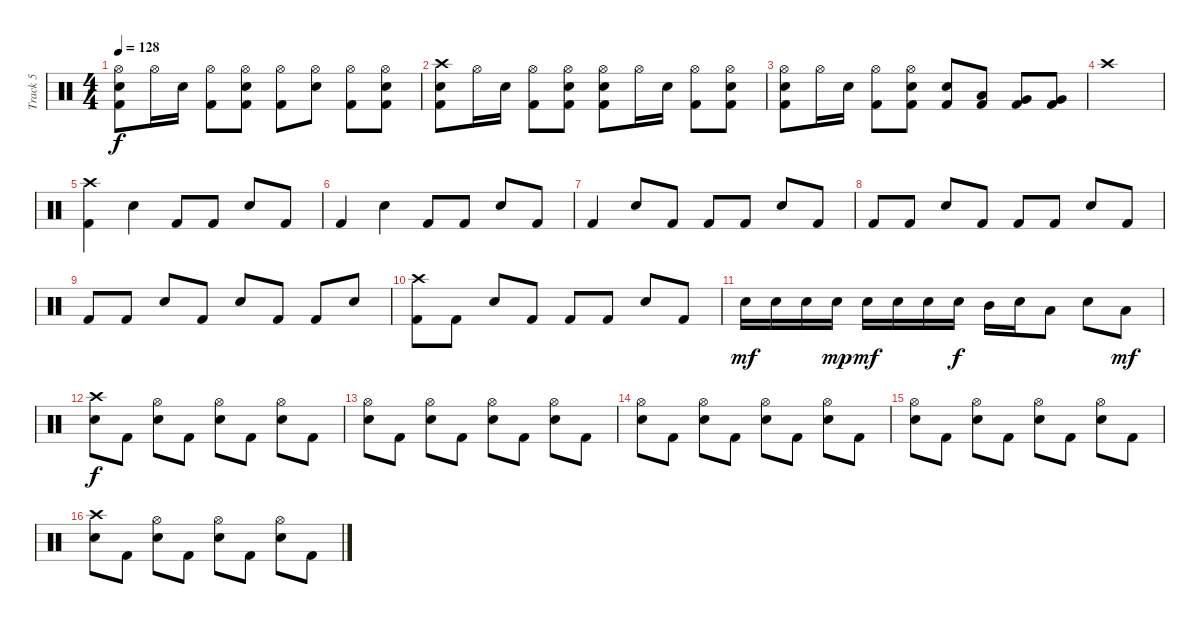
\track ("Track 5" "Track 5") {instrument percussion}
\staff {score}
\articulation defaults
\ts (4 4)
\tempo 128
\clef neutral
\ks c
("Hi-Hat (open)" "Electric Snare (hit)" "Kick (hit) 2").8{dy f} "Hi-Hat (open)".16 "Electric Snare (hit)".16 ("Hi-Hat (open)" "Kick (hit) 2").8 ("Hi-Hat (open)" "Electric Snare (hit)" "Kick (hit) 2").8 ("Hi-Hat (open)" "Kick (hit) 2").8 ("Hi-Hat (open)" "Electric Snare (hit)").8 ("Hi-Hat (open)" "Kick (hit) 2").8 ("Hi-Hat (open)" "Electric Snare (hit)" "Kick (hit) 2").8 |
("Crash high (hit)" "Electric Snare (hit)" "Kick (hit) 2").8 "Hi-Hat (open)".16 "Electric Snare (hit)".16 ("Hi-Hat (open)" "Kick (hit) 2").8 ("Hi-Hat (open)" "Electric Snare (hit)" "Kick (hit) 2").8 ("Hi-Hat (open)" "Electric Snare (hit)" "Kick (hit) 2").8 "Hi-Hat (open)".16 "Electric Snare (hit)".16 ("Hi-Hat (open)" "Kick (hit) 2").8 ("Hi-Hat (open)" "Electric Snare (hit)" "Kick (hit) 2").8 |
("Hi-Hat (open)" "Electric Snare (hit)" "Kick (hit) 2").8 "Hi-Hat (open)".16 "Electric Snare (hit)".16 ("Hi-Hat (open)" "Kick (hit) 2").8 ("Hi-Hat (open)" "Electric Snare (hit)" "Kick (hit) 2").8 ("Electric Snare (hit)" "Kick (hit) 2").8 ("Low Tom (hit)" "Kick (hit) 2").8 ("Very Low Tom (hit)" "Kick (hit) 2").8 ("Very Low Tom (hit)" "Kick (hit) 2").8 |
"Crash high (hit)".1 |
("Crash high (hit)" "Kick (hit) 2").4 "Electric Snare (hit)".4 "Kick (hit) 2".8 "Kick (hit) 2".8 "Electric Snare (hit)".8 "Kick (hit) 2".8 |
"Kick (hit) 2".4 "Electric Snare (hit)".4 "Kick (hit) 2".8 "Kick (hit) 2".8 "Electric Snare (hit)".8 "Kick (hit) 2".8 |
"Kick (hit) 2".4 "Electric Snare (hit)".8 "Kick (hit) 2".8 "Kick (hit) 2".8 "Kick (hit) 2".8 "Electric Snare (hit)".8 "Kick (hit) 2".8 |
"Kick (hit) 2".8 "Kick (hit) 2".8 "Electric Snare (hit)".8 "Kick (hit) 2".8 "Kick (hit) 2".8 "Kick (hit) 2".8 "Electric Snare (hit)".8 "Kick (hit) 2".8 |
"Kick (hit) 2".8 "Kick (hit) 2".8 "Electric Snare (hit)".8 "Kick (hit) 2".8 "Electric Snare (hit)".8 "Kick (hit) 2".8 "Kick (hit) 2".8 "Electric Snare (hit)".8 |
("Crash high (hit)" "Kick (hit) 2").8 "Kick (hit) 2".8 "Electric Snare (hit)".8 "Kick (hit) 2".8 "Kick (hit) 2".8 "Kick (hit) 2".8 "Electric Snare (hit)".8 "Kick (hit) 2".8 |
"Electric Snare (hit)".16{dy mf} "Electric Snare (hit)".16 "Electric Snare (hit)".16 "Electric Snare (hit)".16{dy mp} "Electric Snare (hit)".16{dy mf} "Electric Snare (hit)".16 "Electric Snare (hit)".16 "Electric Snare (hit)".16{dy f} "Mid Tom (hit)".16 "Electric Snare (hit)".16 "Low Tom (hit)".8 "Electric Snare (hit)".8 "Low Tom (hit)".8{dy mf} |
("Crash high (hit)" "Electric Snare (hit)").8{dy f} "Kick (hit) 2".8 ("Hi-Hat (open)" "Electric Snare (hit)").8 "Kick (hit) 2".8 ("Hi-Hat (open)" "Electric Snare (hit)").8 "Kick (hit) 2".8 ("Hi-Hat (open)" "Electric Snare (hit)").8 "Kick (hit) 2".8 |
("Hi-Hat (open)" "Electric Snare (hit)").8 "Kick (hit) 2".8 ("Hi-Hat (open)" "Electric Snare (hit)").8 "Kick (hit) 2".8 ("Hi-Hat (open)" "Electric Snare (hit)").8 "Kick (hit) 2".8 ("Hi-Hat (open)" "Electric Snare (hit)").8 "Kick (hit) 2".8 |
("Hi-Hat (open)" "Electric Snare (hit)").8 "Kick (hit) 2".8 ("Hi-Hat (open)" "Electric Snare (hit)").8 "Kick (hit) 2".8 ("Hi-Hat (open)" "Electric Snare (hit)").8 "Kick (hit) 2".8 ("Hi-Hat (open)" "Electric Snare (hit)").8 "Kick (hit) 2".8 |
("Hi-Hat (open)" "Electric Snare (hit)").8 "Kick (hit) 2".8 ("Hi-Hat (open)" "Electric Snare (hit)").8 "Kick (hit) 2".8 ("Hi-Hat (open)" "Electric Snare (hit)").8 "Kick (hit) 2".8 ("Hi-Hat (open)" "Electric Snare (hit)").8 "Kick (hit) 2".8 |
("Crash high (hit)" "Electric Snare (hit)").8 "Kick (hit) 2".8 ("Hi-Hat (open)" "Electric Snare (hit)").8 "Kick (hit) 2".8 ("Hi-Hat (open)" "Electric Snare (hit)").8 "Kick (hit) 2".8 ("Hi-Hat (open)" "Electric Snare (hit)").8 "Kick (hit) 2".8
